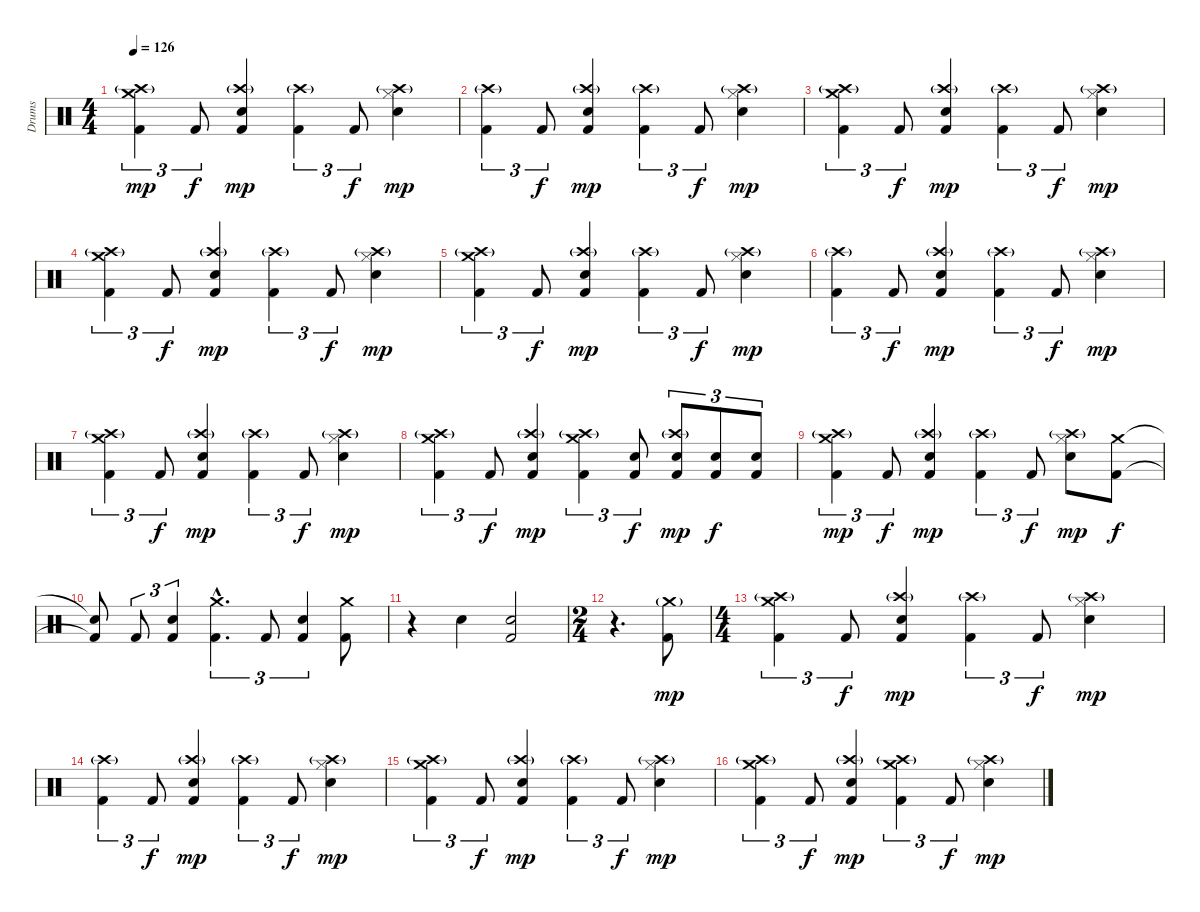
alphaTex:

\track ("Drums" "Drums") {instrument percussion}
\staff {score}
\articulation defaults
\ts (4 4)
\tempo 126
\clef neutral
\ks c
("Kick (hit) 2" "Crash medium (hit)" "Crash high (hit)"{g}).4{tu (3 2) dy mp volume 16} "Kick (hit) 2".8{tu (3 2) dy f} ("Kick (hit) 2" "Snare (hit) 2" "Crash high (hit)"{g}).4{dy mp} ("Kick (hit) 2" "Crash high (hit)"{g}).4{tu (3 2)} "Kick (hit) 2".8{tu (3 2) dy f} ("Hi-Hat (closed)" "Snare (hit) 2" "Crash high (hit)"{g}).4{dy mp} |
("Kick (hit) 2" "Crash high (hit)"{g}).4{tu (3 2)} "Kick (hit) 2".8{tu (3 2) dy f} ("Kick (hit) 2" "Snare (hit) 2" "Crash high (hit)"{g}).4{dy mp} ("Kick (hit) 2" "Crash high (hit)"{g}).4{tu (3 2)} "Kick (hit) 2".8{tu (3 2) dy f} ("Hi-Hat (closed)" "Snare (hit) 2" "Crash high (hit)"{g}).4{dy mp} |
("Kick (hit) 2" "Crash medium (hit)" "Crash high (hit)"{g}).4{tu (3 2)} "Kick (hit) 2".8{tu (3 2) dy f} ("Kick (hit) 2" "Snare (hit) 2" "Crash high (hit)"{g}).4{dy mp} ("Kick (hit) 2" "Crash high (hit)"{g}).4{tu (3 2)} "Kick (hit) 2".8{tu (3 2) dy f} ("Hi-Hat (closed)" "Snare (hit) 2" "Crash high (hit)"{g}).4{dy mp} |
("Kick (hit) 2" "Crash medium (hit)" "Crash high (hit)"{g}).4{tu (3 2)} "Kick (hit) 2".8{tu (3 2) dy f} ("Kick (hit) 2" "Snare (hit) 2" "Crash high (hit)"{g}).4{dy mp} ("Kick (hit) 2" "Crash high (hit)"{g}).4{tu (3 2)} "Kick (hit) 2".8{tu (3 2) dy f} ("Hi-Hat (closed)" "Snare (hit) 2" "Crash high (hit)"{g}).4{dy mp} |
("Kick (hit) 2" "Crash medium (hit)" "Crash high (hit)"{g}).4{tu (3 2) volume 16} "Kick (hit) 2".8{tu (3 2) dy f} ("Kick (hit) 2" "Snare (hit) 2" "Crash high (hit)"{g}).4{dy mp} ("Kick (hit) 2" "Crash high (hit)"{g}).4{tu (3 2)} "Kick (hit) 2".8{tu (3 2) dy f} ("Hi-Hat (closed)" "Snare (hit) 2" "Crash high (hit)"{g}).4{dy mp} |
("Kick (hit) 2" "Crash high (hit)"{g}).4{tu (3 2)} "Kick (hit) 2".8{tu (3 2) dy f} ("Kick (hit) 2" "Snare (hit) 2" "Crash high (hit)"{g}).4{dy mp} ("Kick (hit) 2" "Crash high (hit)"{g}).4{tu (3 2)} "Kick (hit) 2".8{tu (3 2) dy f} ("Hi-Hat (closed)" "Snare (hit) 2" "Crash high (hit)"{g}).4{dy mp} |
("Kick (hit) 2" "Crash medium (hit)" "Crash high (hit)"{g}).4{tu (3 2)} "Kick (hit) 2".8{tu (3 2) dy f} ("Kick (hit) 2" "Snare (hit) 2" "Crash high (hit)"{g}).4{dy mp} ("Kick (hit) 2" "Crash high (hit)"{g}).4{tu (3 2)} "Kick (hit) 2".8{tu (3 2) dy f} ("Hi-Hat (closed)" "Snare (hit) 2" "Crash high (hit)"{g}).4{dy mp} |
("Kick (hit) 2" "Crash medium (hit)" "Crash high (hit)"{g}).4{tu (3 2)} "Kick (hit) 2".8{tu (3 2) dy f} ("Kick (hit) 2" "Snare (hit) 2" "Crash high (hit)"{g}).4{dy mp} ("Kick (hit) 2" "Crash medium (hit)" "Crash high (hit)"{g}).4{tu (3 2)} ("Kick (hit) 2" "Snare (hit) 2").8{tu (3 2) dy f} ("Kick (hit) 2" "Snare (hit) 2" "Crash high (hit)"{g}).8{tu (3 2) dy mp} ("Kick (hit) 2" "Snare (hit) 2").8{tu (3 2) dy f} ("Kick (hit) 2" "Snare (hit) 2").8{tu (3 2)} |
("Kick (hit) 2" "Crash medium (hit)" "Crash high (hit)"{g}).4{tu (3 2) dy mp} "Kick (hit) 2".8{tu (3 2) dy f} ("Kick (hit) 2" "Snare (hit) 2" "Crash high (hit)"{g}).4{dy mp} ("Kick (hit) 2" "Crash high (hit)"{g}).4{tu (3 2)} "Kick (hit) 2".8{tu (3 2) dy f} ("Hi-Hat (closed)" "Snare (hit) 2" "Crash high (hit)"{g}).8{dy mp} ("Kick (hit) 2" "Crash medium (hit)").8{dy f} |
("Kick (hit) 2"{t} "Snare (hit)"{t}).8 "Kick (hit) 2".8{tu (3 2)} ("Kick (hit) 2" "Snare (hit) 2").4{tu (3 2)} ("Kick (hit) 2"{hac} "Crash medium (hit)"{hac}).4{d tu (3 2)} "Kick (hit) 2".8{tu (3 2)} ("Kick (hit) 2" "Snare (hit) 2").4{tu (3 2)} ("Kick (hit) 2" "Crash medium (hit)").8 |
r.4 "Snare (hit) 2".4 ("Kick (hit) 2" "Snare (hit) 2").2 |
\ts (2 4)
r.4{d} ("Kick (hit) 2" "Crash medium (hit)"{g}).8{dy mp} |
\ts (4 4)
("Kick (hit) 2" "Crash medium (hit)" "Crash high (hit)"{g}).4{tu (3 2)} "Kick (hit) 2".8{tu (3 2) dy f} ("Kick (hit) 2" "Snare (hit) 2" "Crash high (hit)"{g}).4{dy mp} ("Kick (hit) 2" "Crash high (hit)"{g}).4{tu (3 2)} "Kick (hit) 2".8{tu (3 2) dy f} ("Hi-Hat (closed)" "Snare (hit) 2" "Crash high (hit)"{g}).4{dy mp} |
("Kick (hit) 2" "Crash high (hit)"{g}).4{tu (3 2)} "Kick (hit) 2".8{tu (3 2) dy f} ("Kick (hit) 2" "Snare (hit) 2" "Crash high (hit)"{g}).4{dy mp} ("Kick (hit) 2" "Crash high (hit)"{g}).4{tu (3 2)} "Kick (hit) 2".8{tu (3 2) dy f} ("Hi-Hat (closed)" "Snare (hit) 2" "Crash high (hit)"{g}).4{dy mp} |
("Kick (hit) 2" "Crash medium (hit)" "Crash high (hit)"{g}).4{tu (3 2)} "Kick (hit) 2".8{tu (3 2) dy f} ("Kick (hit) 2" "Snare (hit) 2" "Crash high (hit)"{g}).4{dy mp} ("Kick (hit) 2" "Crash high (hit)"{g}).4{tu (3 2)} "Kick (hit) 2".8{tu (3 2) dy f} ("Hi-Hat (closed)" "Snare (hit) 2" "Crash high (hit)"{g}).4{dy mp} |
("Kick (hit) 2" "Crash medium (hit)" "Crash high (hit)"{g}).4{tu (3 2)} "Kick (hit) 2".8{tu (3 2) dy f} ("Kick (hit) 2" "Snare (hit) 2" "Crash high (hit)"{g}).4{dy mp} ("Kick (hit) 2" "Crash medium (hit)" "Crash high (hit)"{g}).4{tu (3 2)} "Kick (hit) 2".8{tu (3 2) dy f} ("Hi-Hat (closed)" "Snare (hit) 2" "Crash high (hit)"{g}).4{dy mp}
